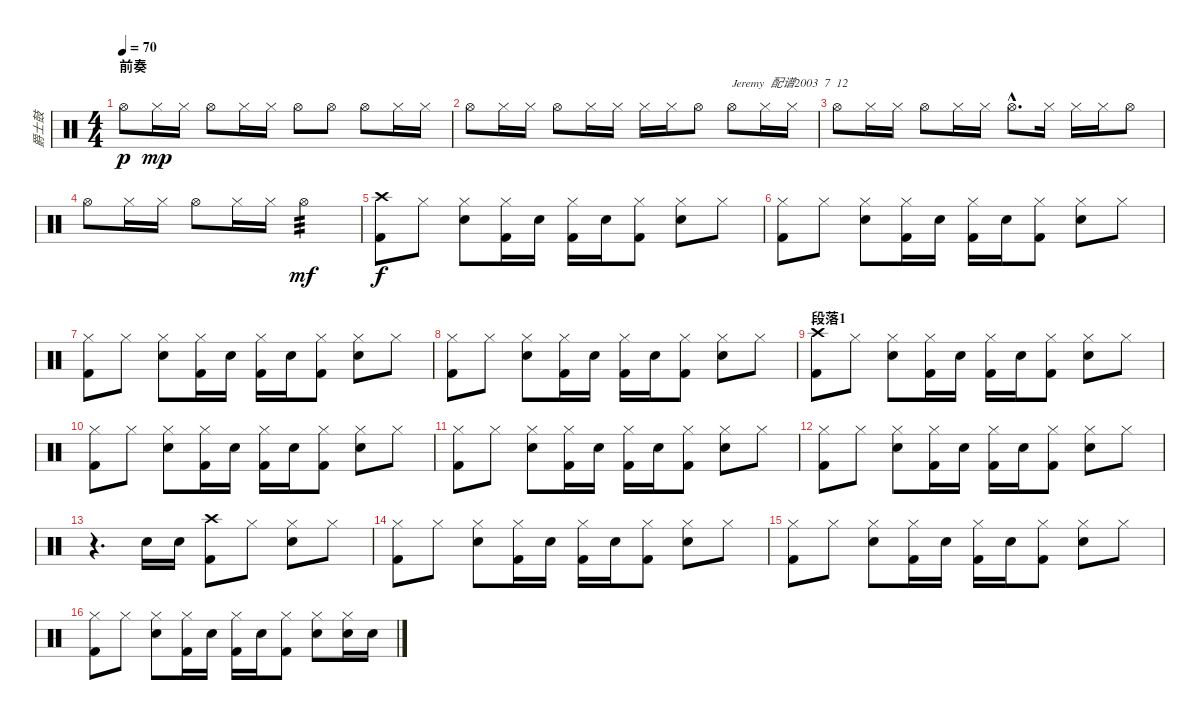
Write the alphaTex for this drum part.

\track ("爵士鼓" "爵士鼓") {instrument percussion}
\staff {score}
\articulation defaults
\ts (4 4)
\section ("" "前奏")
\tempo 70
\clef neutral
\ks c "Hi-Hat (open)".8{dy p} "Hi-Hat (closed)".16{dy mp} "Hi-Hat (closed)".16 "Hi-Hat (open)".8 "Hi-Hat (closed)".16 "Hi-Hat (closed)".16 "Hi-Hat (open)".8 "Hi-Hat (open)".8 "Hi-Hat (open)".8 "Hi-Hat (closed)".16 "Hi-Hat (closed)".16
|
"Hi-Hat (open)".8 "Hi-Hat (closed)".16 "Hi-Hat (closed)".16 "Hi-Hat (open)".8 "Hi-Hat (closed)".16 "Hi-Hat (closed)".16 "Hi-Hat (closed)".16 "Hi-Hat (closed)".16 "Hi-Hat (open)".8 "Hi-Hat (open)".8{txt "Jeremy  配谱2003  7  12"} "Hi-Hat (closed)".16 "Hi-Hat (closed)".16 |
"Hi-Hat (open)".8 "Hi-Hat (closed)".16 "Hi-Hat (closed)".16 "Hi-Hat (open)".8 "Hi-Hat (closed)".16 "Hi-Hat (closed)".16 "Hi-Hat (open)"{hac}.8{d} "Hi-Hat (closed)".16 "Hi-Hat (closed)".16 "Hi-Hat (closed)".16 "Hi-Hat (open)".8 |
"Hi-Hat (open)".8 "Hi-Hat (closed)".16 "Hi-Hat (closed)".16 "Hi-Hat (open)".8 "Hi-Hat (closed)".16 "Hi-Hat (closed)".16 "Hi-Hat (open)".2{tp 3 dy mf} |
("Crash high (hit)" "Kick (hit) 2").8{dy f} "Hi-Hat (closed)".8 ("Hi-Hat (closed)" "Electric Snare (hit)").8 ("Hi-Hat (closed)" "Kick (hit) 2").16 "Electric Snare (hit)".16 ("Hi-Hat (closed)" "Kick (hit) 2").16 "Electric Snare (hit)".16 ("Hi-Hat (closed)" "Kick (hit) 2").8 ("Hi-Hat (closed)" "Electric Snare (hit)").8 "Hi-Hat (closed)".8 |
("Hi-Hat (closed)" "Kick (hit) 2").8 "Hi-Hat (closed)".8 ("Hi-Hat (closed)" "Electric Snare (hit)").8 ("Hi-Hat (closed)" "Kick (hit) 2").16 "Electric Snare (hit)".16 ("Hi-Hat (closed)" "Kick (hit) 2").16 "Electric Snare (hit)".16 ("Hi-Hat (closed)" "Kick (hit) 2").8 ("Hi-Hat (closed)" "Electric Snare (hit)").8 "Hi-Hat (closed)".8 |
("Hi-Hat (closed)" "Kick (hit) 2").8 "Hi-Hat (closed)".8 ("Hi-Hat (closed)" "Electric Snare (hit)").8 ("Hi-Hat (closed)" "Kick (hit) 2").16 "Electric Snare (hit)".16 ("Hi-Hat (closed)" "Kick (hit) 2").16 "Electric Snare (hit)".16 ("Hi-Hat (closed)" "Kick (hit) 2").8 ("Hi-Hat (closed)" "Electric Snare (hit)").8 "Hi-Hat (closed)".8 |
("Hi-Hat (closed)" "Kick (hit) 2").8 "Hi-Hat (closed)".8 ("Hi-Hat (closed)" "Electric Snare (hit)").8 ("Hi-Hat (closed)" "Kick (hit) 2").16 "Electric Snare (hit)".16 ("Hi-Hat (closed)" "Kick (hit) 2").16 "Electric Snare (hit)".16 ("Hi-Hat (closed)" "Kick (hit) 2").8 ("Hi-Hat (closed)" "Electric Snare (hit)").8 "Hi-Hat (closed)".8 |
\section ("" "段落1")
("Crash high (hit)" "Kick (hit) 2").8 "Hi-Hat (closed)".8 ("Hi-Hat (closed)" "Electric Snare (hit)").8 ("Hi-Hat (closed)" "Kick (hit) 2").16 "Electric Snare (hit)".16 ("Hi-Hat (closed)" "Kick (hit) 2").16 "Electric Snare (hit)".16 ("Hi-Hat (closed)" "Kick (hit) 2").8 ("Hi-Hat (closed)" "Electric Snare (hit)").8 "Hi-Hat (closed)".8 |
("Hi-Hat (closed)" "Kick (hit) 2").8 "Hi-Hat (closed)".8 ("Hi-Hat (closed)" "Electric Snare (hit)").8 ("Hi-Hat (closed)" "Kick (hit) 2").16 "Electric Snare (hit)".16 ("Hi-Hat (closed)" "Kick (hit) 2").16 "Electric Snare (hit)".16 ("Hi-Hat (closed)" "Kick (hit) 2").8 ("Hi-Hat (closed)" "Electric Snare (hit)").8 "Hi-Hat (closed)".8 |
("Hi-Hat (closed)" "Kick (hit) 2").8 "Hi-Hat (closed)".8 ("Hi-Hat (closed)" "Electric Snare (hit)").8 ("Hi-Hat (closed)" "Kick (hit) 2").16 "Electric Snare (hit)".16 ("Hi-Hat (closed)" "Kick (hit) 2").16 "Electric Snare (hit)".16 ("Hi-Hat (closed)" "Kick (hit) 2").8 ("Hi-Hat (closed)" "Electric Snare (hit)").8 "Hi-Hat (closed)".8 |
("Hi-Hat (closed)" "Kick (hit) 2").8 "Hi-Hat (closed)".8 ("Hi-Hat (closed)" "Electric Snare (hit)").8 ("Hi-Hat (closed)" "Kick (hit) 2").16 "Electric Snare (hit)".16 ("Hi-Hat (closed)" "Kick (hit) 2").16 "Electric Snare (hit)".16 ("Hi-Hat (closed)" "Kick (hit) 2").8 ("Hi-Hat (closed)" "Electric Snare (hit)").8 "Hi-Hat (closed)".8 |
r.4{d} "Electric Snare (hit)".16 "Electric Snare (hit)".16 ("Crash high (hit)" "Kick (hit) 2").8 "Hi-Hat (closed)".8 ("Hi-Hat (closed)" "Electric Snare (hit)").8 "Hi-Hat (closed)".8 |
("Hi-Hat (closed)" "Kick (hit) 2").8 "Hi-Hat (closed)".8 ("Hi-Hat (closed)" "Electric Snare (hit)").8 ("Hi-Hat (closed)" "Kick (hit) 2").16 "Electric Snare (hit)".16 ("Hi-Hat (closed)" "Kick (hit) 2").16 "Electric Snare (hit)".16 ("Hi-Hat (closed)" "Kick (hit) 2").8 ("Hi-Hat (closed)" "Electric Snare (hit)").8 "Hi-Hat (closed)".8 |
("Hi-Hat (closed)" "Kick (hit) 2").8 "Hi-Hat (closed)".8 ("Hi-Hat (closed)" "Electric Snare (hit)").8 ("Hi-Hat (closed)" "Kick (hit) 2").16 "Electric Snare (hit)".16 ("Hi-Hat (closed)" "Kick (hit) 2").16 "Electric Snare (hit)".16 ("Hi-Hat (closed)" "Kick (hit) 2").8 ("Hi-Hat (closed)" "Electric Snare (hit)").8 "Hi-Hat (closed)".8 |
("Hi-Hat (closed)" "Kick (hit) 2").8 "Hi-Hat (closed)".8 ("Hi-Hat (closed)" "Electric Snare (hit)").8 ("Hi-Hat (closed)" "Kick (hit) 2").16 "Electric Snare (hit)".16 ("Hi-Hat (closed)" "Kick (hit) 2").16 "Electric Snare (hit)".16 ("Hi-Hat (closed)" "Kick (hit) 2").8 ("Hi-Hat (closed)" "Electric Snare (hit)").8 ("Hi-Hat (closed)" "Electric Snare (hit)").16 "Electric Snare (hit)".16
